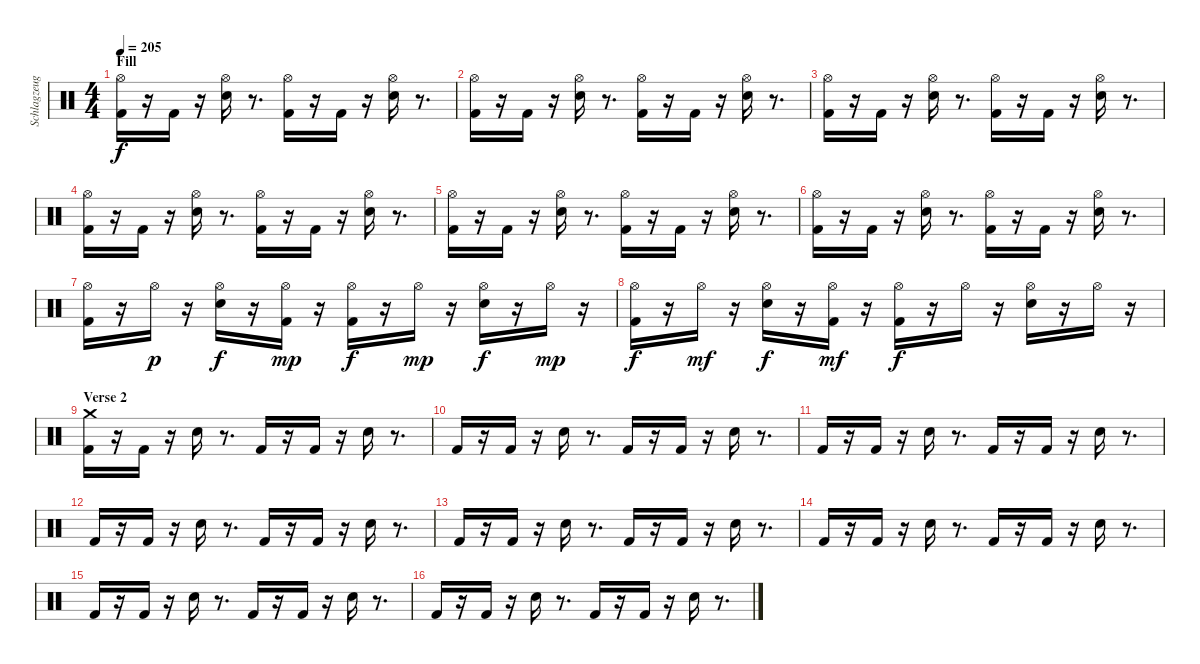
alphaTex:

\track ("Schlagzeug - Bela B." "Schlagzeug") {instrument percussion}
\staff {score}
\articulation defaults
\ts (4 4)
\section ("" "Fill")
\tempo 205
\clef neutral
\ks c
("Kick (hit) 2" "Hi-Hat (open)").16{dy f} r.16 "Kick (hit) 2".16 r.16 ("Electric Snare (hit)" "Hi-Hat (open)").16 r.8{d} ("Kick (hit) 2" "Hi-Hat (open)").16 r.16 "Kick (hit) 2".16 r.16 ("Electric Snare (hit)" "Hi-Hat (open)").16 r.8{d} |
("Kick (hit) 2" "Hi-Hat (open)").16 r.16 "Kick (hit) 2".16 r.16 ("Electric Snare (hit)" "Hi-Hat (open)").16 r.8{d} ("Kick (hit) 2" "Hi-Hat (open)").16 r.16 "Kick (hit) 2".16 r.16 ("Electric Snare (hit)" "Hi-Hat (open)").16 r.8{d} |
("Kick (hit) 2" "Hi-Hat (open)").16 r.16 "Kick (hit) 2".16 r.16 ("Electric Snare (hit)" "Hi-Hat (open)").16 r.8{d} ("Kick (hit) 2" "Hi-Hat (open)").16 r.16 "Kick (hit) 2".16 r.16 ("Electric Snare (hit)" "Hi-Hat (open)").16 r.8{d} |
("Kick (hit) 2" "Hi-Hat (open)").16 r.16 "Kick (hit) 2".16 r.16 ("Electric Snare (hit)" "Hi-Hat (open)").16 r.8{d} ("Kick (hit) 2" "Hi-Hat (open)").16 r.16 "Kick (hit) 2".16 r.16 ("Electric Snare (hit)" "Hi-Hat (open)").16 r.8{d} |
("Kick (hit) 2" "Hi-Hat (open)").16 r.16 "Kick (hit) 2".16 r.16 ("Electric Snare (hit)" "Hi-Hat (open)").16 r.8{d} ("Kick (hit) 2" "Hi-Hat (open)").16 r.16 "Kick (hit) 2".16 r.16 ("Electric Snare (hit)" "Hi-Hat (open)").16 r.8{d} |
("Kick (hit) 2" "Hi-Hat (open)").16 r.16 "Kick (hit) 2".16 r.16 ("Electric Snare (hit)" "Hi-Hat (open)").16 r.8{d} ("Kick (hit) 2" "Hi-Hat (open)").16 r.16 "Kick (hit) 2".16 r.16 ("Electric Snare (hit)" "Hi-Hat (open)").16 r.8{d} |
("Kick (hit) 2" "Hi-Hat (open)").16 r.16 "Hi-Hat (open)".16{dy p} r.16 ("Electric Snare (hit)" "Hi-Hat (open)").16{dy f} r.16 ("Kick (hit) 2" "Hi-Hat (open)").16{dy mp} r.16 ("Kick (hit) 2" "Hi-Hat (open)").16{dy f} r.16 "Hi-Hat (open)".16{dy mp} r.16 ("Electric Snare (hit)" "Hi-Hat (open)").16{dy f} r.16 "Hi-Hat (open)".16{dy mp} r.16 |
("Kick (hit) 2" "Hi-Hat (open)").16{dy f} r.16 "Hi-Hat (open)".16{dy mf} r.16 ("Electric Snare (hit)" "Hi-Hat (open)").16{dy f} r.16 ("Kick (hit) 2" "Hi-Hat (open)").16{dy mf} r.16 ("Kick (hit) 2" "Hi-Hat (open)").16{dy f} r.16 "Hi-Hat (open)".16 r.16 ("Electric Snare (hit)" "Hi-Hat (open)").16 r.16 "Hi-Hat (open)".16 r.16 |
\section ("" "Verse 2")
("Kick (hit) 2" "Crash medium (hit)").16 r.16 "Kick (hit) 2".16 r.16 "Electric Snare (hit)".16 r.8{d} "Kick (hit) 2".16 r.16 "Kick (hit) 2".16 r.16 "Electric Snare (hit)".16 r.8{d} |
"Kick (hit) 2".16 r.16 "Kick (hit) 2".16 r.16 "Electric Snare (hit)".16 r.8{d} "Kick (hit) 2".16 r.16 "Kick (hit) 2".16 r.16 "Electric Snare (hit)".16 r.8{d} |
"Kick (hit) 2".16 r.16 "Kick (hit) 2".16 r.16 "Electric Snare (hit)".16 r.8{d} "Kick (hit) 2".16 r.16 "Kick (hit) 2".16 r.16 "Electric Snare (hit)".16 r.8{d} |
"Kick (hit) 2".16 r.16 "Kick (hit) 2".16 r.16 "Electric Snare (hit)".16 r.8{d} "Kick (hit) 2".16 r.16 "Kick (hit) 2".16 r.16 "Electric Snare (hit)".16 r.8{d} |
"Kick (hit) 2".16 r.16 "Kick (hit) 2".16 r.16 "Electric Snare (hit)".16 r.8{d} "Kick (hit) 2".16 r.16 "Kick (hit) 2".16 r.16 "Electric Snare (hit)".16 r.8{d} |
"Kick (hit) 2".16 r.16 "Kick (hit) 2".16 r.16 "Electric Snare (hit)".16 r.8{d} "Kick (hit) 2".16 r.16 "Kick (hit) 2".16 r.16 "Electric Snare (hit)".16 r.8{d} |
"Kick (hit) 2".16 r.16 "Kick (hit) 2".16 r.16 "Electric Snare (hit)".16 r.8{d} "Kick (hit) 2".16 r.16 "Kick (hit) 2".16 r.16 "Electric Snare (hit)".16 r.8{d} |
"Kick (hit) 2".16 r.16 "Kick (hit) 2".16 r.16 "Electric Snare (hit)".16 r.8{d} "Kick (hit) 2".16 r.16 "Kick (hit) 2".16 r.16 "Electric Snare (hit)".16 r.8{d}
